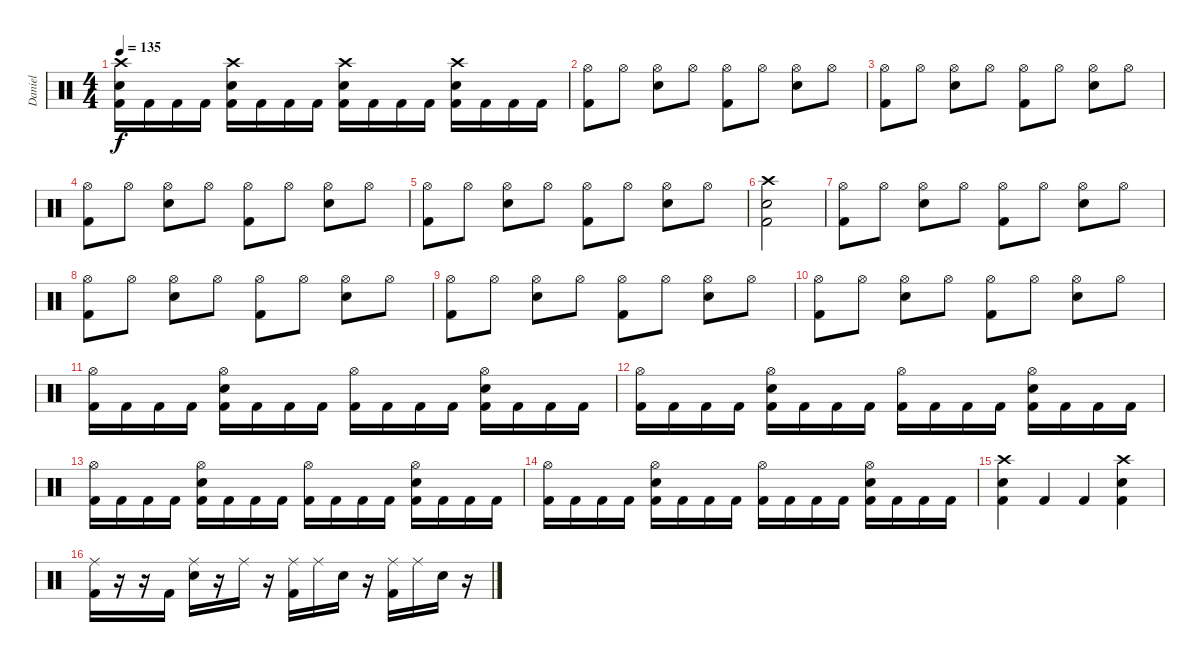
\track ("Daniel" "Daniel") {instrument percussion}
\staff {score}
\articulation defaults
\ts (4 4)
\tempo 135
\clef neutral
\ks c
("Crash high (hit)" "Electric Snare (hit)" "Kick (hit) 2").16{dy f} "Kick (hit) 2".16 "Kick (hit) 2".16 "Kick (hit) 2".16 ("Crash high (hit)" "Electric Snare (hit)" "Kick (hit) 2").16 "Kick (hit) 2".16 "Kick (hit) 2".16 "Kick (hit) 2".16 ("Crash high (hit)" "Electric Snare (hit)" "Kick (hit) 2").16 "Kick (hit) 2".16 "Kick (hit) 2".16 "Kick (hit) 2".16 ("Crash high (hit)" "Electric Snare (hit)" "Kick (hit) 2").16 "Kick (hit) 2".16 "Kick (hit) 2".16 "Kick (hit) 2".16 |
("Hi-Hat (open)" "Kick (hit) 2").8 "Hi-Hat (open)".8 ("Hi-Hat (open)" "Electric Snare (hit)").8 "Hi-Hat (open)".8 ("Hi-Hat (open)" "Kick (hit) 2").8 "Hi-Hat (open)".8 ("Hi-Hat (open)" "Electric Snare (hit)").8 "Hi-Hat (open)".8 |
("Hi-Hat (open)" "Kick (hit) 2").8 "Hi-Hat (open)".8 ("Hi-Hat (open)" "Electric Snare (hit)").8 "Hi-Hat (open)".8 ("Hi-Hat (open)" "Kick (hit) 2").8 "Hi-Hat (open)".8 ("Hi-Hat (open)" "Electric Snare (hit)").8 "Hi-Hat (open)".8 |
("Hi-Hat (open)" "Kick (hit) 2").8 "Hi-Hat (open)".8 ("Hi-Hat (open)" "Electric Snare (hit)").8 "Hi-Hat (open)".8 ("Hi-Hat (open)" "Kick (hit) 2").8 "Hi-Hat (open)".8 ("Hi-Hat (open)" "Electric Snare (hit)").8 "Hi-Hat (open)".8 |
("Hi-Hat (open)" "Kick (hit) 2").8 "Hi-Hat (open)".8 ("Hi-Hat (open)" "Electric Snare (hit)").8 "Hi-Hat (open)".8 ("Hi-Hat (open)" "Kick (hit) 2").8 "Hi-Hat (open)".8 ("Hi-Hat (open)" "Electric Snare (hit)").8 "Hi-Hat (open)".8 |
("Crash high (hit)" "Electric Snare (hit)" "Kick (hit) 2").2 |
("Hi-Hat (open)" "Kick (hit) 2").8 "Hi-Hat (open)".8 ("Hi-Hat (open)" "Electric Snare (hit)").8 "Hi-Hat (open)".8 ("Hi-Hat (open)" "Kick (hit) 2").8 "Hi-Hat (open)".8 ("Hi-Hat (open)" "Electric Snare (hit)").8 "Hi-Hat (open)".8 |
("Hi-Hat (open)" "Kick (hit) 2").8 "Hi-Hat (open)".8 ("Hi-Hat (open)" "Electric Snare (hit)").8 "Hi-Hat (open)".8 ("Hi-Hat (open)" "Kick (hit) 2").8 "Hi-Hat (open)".8 ("Hi-Hat (open)" "Electric Snare (hit)").8 "Hi-Hat (open)".8 |
("Hi-Hat (open)" "Kick (hit) 2").8 "Hi-Hat (open)".8 ("Hi-Hat (open)" "Electric Snare (hit)").8 "Hi-Hat (open)".8 ("Hi-Hat (open)" "Kick (hit) 2").8 "Hi-Hat (open)".8 ("Hi-Hat (open)" "Electric Snare (hit)").8 "Hi-Hat (open)".8 |
("Hi-Hat (open)" "Kick (hit) 2").8 "Hi-Hat (open)".8 ("Hi-Hat (open)" "Electric Snare (hit)").8 "Hi-Hat (open)".8 ("Hi-Hat (open)" "Kick (hit) 2").8 "Hi-Hat (open)".8 ("Hi-Hat (open)" "Electric Snare (hit)").8 "Hi-Hat (open)".8 |
("Hi-Hat (open)" "Kick (hit) 2").16 "Kick (hit) 2".16 "Kick (hit) 2".16 "Kick (hit) 2".16 ("Hi-Hat (open)" "Electric Snare (hit)" "Kick (hit) 2").16 "Kick (hit) 2".16 "Kick (hit) 2".16 "Kick (hit) 2".16 ("Hi-Hat (open)" "Kick (hit) 2").16 "Kick (hit) 2".16 "Kick (hit) 2".16 "Kick (hit) 2".16 ("Hi-Hat (open)" "Electric Snare (hit)" "Kick (hit) 2").16 "Kick (hit) 2".16 "Kick (hit) 2".16 "Kick (hit) 2".16 |
("Hi-Hat (open)" "Kick (hit) 2").16 "Kick (hit) 2".16 "Kick (hit) 2".16 "Kick (hit) 2".16 ("Hi-Hat (open)" "Electric Snare (hit)" "Kick (hit) 2").16 "Kick (hit) 2".16 "Kick (hit) 2".16 "Kick (hit) 2".16 ("Hi-Hat (open)" "Kick (hit) 2").16 "Kick (hit) 2".16 "Kick (hit) 2".16 "Kick (hit) 2".16 ("Hi-Hat (open)" "Electric Snare (hit)" "Kick (hit) 2").16 "Kick (hit) 2".16 "Kick (hit) 2".16 "Kick (hit) 2".16 |
("Hi-Hat (open)" "Kick (hit) 2").16 "Kick (hit) 2".16 "Kick (hit) 2".16 "Kick (hit) 2".16 ("Hi-Hat (open)" "Electric Snare (hit)" "Kick (hit) 2").16 "Kick (hit) 2".16 "Kick (hit) 2".16 "Kick (hit) 2".16 ("Hi-Hat (open)" "Kick (hit) 2").16 "Kick (hit) 2".16 "Kick (hit) 2".16 "Kick (hit) 2".16 ("Hi-Hat (open)" "Electric Snare (hit)" "Kick (hit) 2").16 "Kick (hit) 2".16 "Kick (hit) 2".16 "Kick (hit) 2".16 |
("Hi-Hat (open)" "Kick (hit) 2").16 "Kick (hit) 2".16 "Kick (hit) 2".16 "Kick (hit) 2".16 ("Hi-Hat (open)" "Electric Snare (hit)" "Kick (hit) 2").16 "Kick (hit) 2".16 "Kick (hit) 2".16 "Kick (hit) 2".16 ("Hi-Hat (open)" "Kick (hit) 2").16 "Kick (hit) 2".16 "Kick (hit) 2".16 "Kick (hit) 2".16 ("Hi-Hat (open)" "Electric Snare (hit)" "Kick (hit) 2").16 "Kick (hit) 2".16 "Kick (hit) 2".16 "Kick (hit) 2".16 |
("Crash high (hit)" "Electric Snare (hit)" "Kick (hit) 2").4 "Kick (hit) 2".4 "Kick (hit) 2".4 ("Crash high (hit)" "Electric Snare (hit)" "Kick (hit) 2").4 |
("Ride (middle)" "Kick (hit) 2").16 r.16 r.16 "Kick (hit) 2".16 ("Ride (middle)" "Electric Snare (hit)").16 r.16 "Ride (middle)".16 r.16 ("Ride (middle)" "Kick (hit) 2").16 "Ride (middle)".16 "Electric Snare (hit)".16 r.16 ("Ride (middle)" "Kick (hit) 2").16 "Ride (middle)".16 "Electric Snare (hit)".16 r.16
